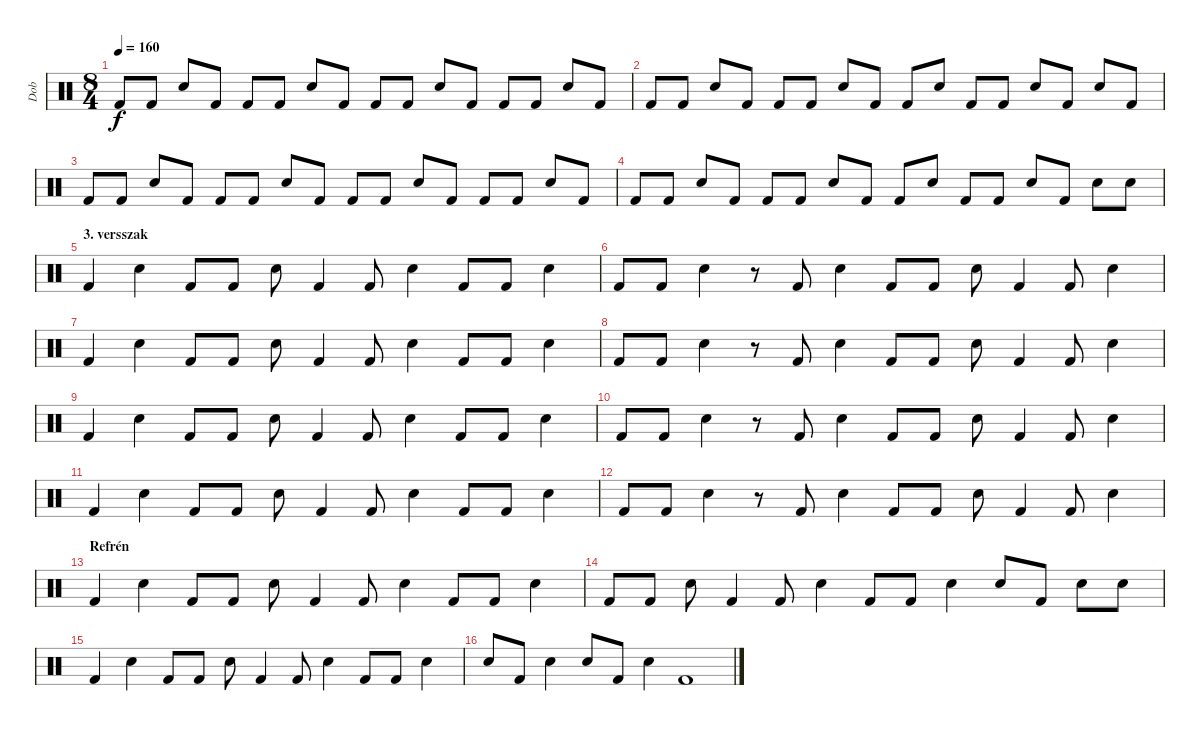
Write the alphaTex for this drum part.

\track ("Dob" "Dob") {instrument percussion}
\staff {score}
\articulation defaults
\ts (8 4)
\tempo 160
\clef neutral
\ks c "Kick (hit) 2".8{dy f} "Kick (hit) 2".8 "Snare (hit) 2".8 "Kick (hit) 2".8 "Kick (hit) 2".8 "Kick (hit) 2".8 "Snare (hit) 2".8 "Kick (hit) 2".8 "Kick (hit) 2".8 "Kick (hit) 2".8 "Snare (hit) 2".8 "Kick (hit) 2".8 "Kick (hit) 2".8 "Kick (hit) 2".8 "Snare (hit) 2".8 "Kick (hit) 2".8
|
"Kick (hit) 2".8 "Kick (hit) 2".8 "Snare (hit) 2".8 "Kick (hit) 2".8 "Kick (hit) 2".8 "Kick (hit) 2".8 "Snare (hit) 2".8 "Kick (hit) 2".8 "Kick (hit) 2".8 "Snare (hit) 2".8 "Kick (hit) 2".8 "Kick (hit) 2".8 "Snare (hit) 2".8 "Kick (hit) 2".8 "Snare (hit) 2".8 "Kick (hit) 2".8 |
"Kick (hit) 2".8 "Kick (hit) 2".8 "Snare (hit) 2".8 "Kick (hit) 2".8 "Kick (hit) 2".8 "Kick (hit) 2".8 "Snare (hit) 2".8 "Kick (hit) 2".8 "Kick (hit) 2".8 "Kick (hit) 2".8 "Snare (hit) 2".8 "Kick (hit) 2".8 "Kick (hit) 2".8 "Kick (hit) 2".8 "Snare (hit) 2".8 "Kick (hit) 2".8 |
"Kick (hit) 2".8 "Kick (hit) 2".8 "Snare (hit) 2".8 "Kick (hit) 2".8 "Kick (hit) 2".8 "Kick (hit) 2".8 "Snare (hit) 2".8 "Kick (hit) 2".8 "Kick (hit) 2".8 "Snare (hit) 2".8 "Kick (hit) 2".8 "Kick (hit) 2".8 "Snare (hit) 2".8 "Kick (hit) 2".8 "Snare (hit) 2".8 "Snare (hit) 2".8 |
\section ("" "3. versszak")
"Kick (hit) 2".4 "Snare (hit) 2".4 "Kick (hit) 2".8 "Kick (hit) 2".8 "Snare (hit) 2".8 "Kick (hit) 2".4 "Kick (hit) 2".8 "Snare (hit) 2".4 "Kick (hit) 2".8 "Kick (hit) 2".8 "Snare (hit) 2".4 |
"Kick (hit) 2".8 "Kick (hit) 2".8 "Snare (hit) 2".4 r.8 "Kick (hit) 2".8 "Snare (hit) 2".4 "Kick (hit) 2".8 "Kick (hit) 2".8 "Snare (hit) 2".8 "Kick (hit) 2".4 "Kick (hit) 2".8 "Snare (hit) 2".4 |
"Kick (hit) 2".4 "Snare (hit) 2".4 "Kick (hit) 2".8 "Kick (hit) 2".8 "Snare (hit) 2".8 "Kick (hit) 2".4 "Kick (hit) 2".8 "Snare (hit) 2".4 "Kick (hit) 2".8 "Kick (hit) 2".8 "Snare (hit) 2".4 |
"Kick (hit) 2".8 "Kick (hit) 2".8 "Snare (hit) 2".4 r.8 "Kick (hit) 2".8 "Snare (hit) 2".4 "Kick (hit) 2".8 "Kick (hit) 2".8 "Snare (hit) 2".8 "Kick (hit) 2".4 "Kick (hit) 2".8 "Snare (hit) 2".4 |
"Kick (hit) 2".4 "Snare (hit) 2".4 "Kick (hit) 2".8 "Kick (hit) 2".8 "Snare (hit) 2".8 "Kick (hit) 2".4 "Kick (hit) 2".8 "Snare (hit) 2".4 "Kick (hit) 2".8 "Kick (hit) 2".8 "Snare (hit) 2".4 |
"Kick (hit) 2".8 "Kick (hit) 2".8 "Snare (hit) 2".4 r.8 "Kick (hit) 2".8 "Snare (hit) 2".4 "Kick (hit) 2".8 "Kick (hit) 2".8 "Snare (hit) 2".8 "Kick (hit) 2".4 "Kick (hit) 2".8 "Snare (hit) 2".4 |
"Kick (hit) 2".4 "Snare (hit) 2".4 "Kick (hit) 2".8 "Kick (hit) 2".8 "Snare (hit) 2".8 "Kick (hit) 2".4 "Kick (hit) 2".8 "Snare (hit) 2".4 "Kick (hit) 2".8 "Kick (hit) 2".8 "Snare (hit) 2".4 |
"Kick (hit) 2".8 "Kick (hit) 2".8 "Snare (hit) 2".4 r.8 "Kick (hit) 2".8 "Snare (hit) 2".4 "Kick (hit) 2".8 "Kick (hit) 2".8 "Snare (hit) 2".8 "Kick (hit) 2".4 "Kick (hit) 2".8 "Snare (hit) 2".4 |
\section ("" "Refrén")
"Kick (hit) 2".4 "Snare (hit) 2".4 "Kick (hit) 2".8 "Kick (hit) 2".8 "Snare (hit) 2".8 "Kick (hit) 2".4 "Kick (hit) 2".8 "Snare (hit) 2".4 "Kick (hit) 2".8 "Kick (hit) 2".8 "Snare (hit) 2".4 |
"Kick (hit) 2".8 "Kick (hit) 2".8 "Snare (hit) 2".8 "Kick (hit) 2".4 "Kick (hit) 2".8 "Snare (hit) 2".4 "Kick (hit) 2".8 "Kick (hit) 2".8 "Snare (hit) 2".4 "Snare (hit) 2".8 "Kick (hit) 2".8 "Snare (hit) 2".8 "Snare (hit) 2".8 |
"Kick (hit) 2".4 "Snare (hit) 2".4 "Kick (hit) 2".8 "Kick (hit) 2".8 "Snare (hit) 2".8 "Kick (hit) 2".4 "Kick (hit) 2".8 "Snare (hit) 2".4 "Kick (hit) 2".8 "Kick (hit) 2".8 "Snare (hit) 2".4 |
"Snare (hit) 2".8 "Kick (hit) 2".8 "Snare (hit) 2".4 "Snare (hit) 2".8 "Kick (hit) 2".8 "Snare (hit) 2".4 "Kick (hit) 2".1
